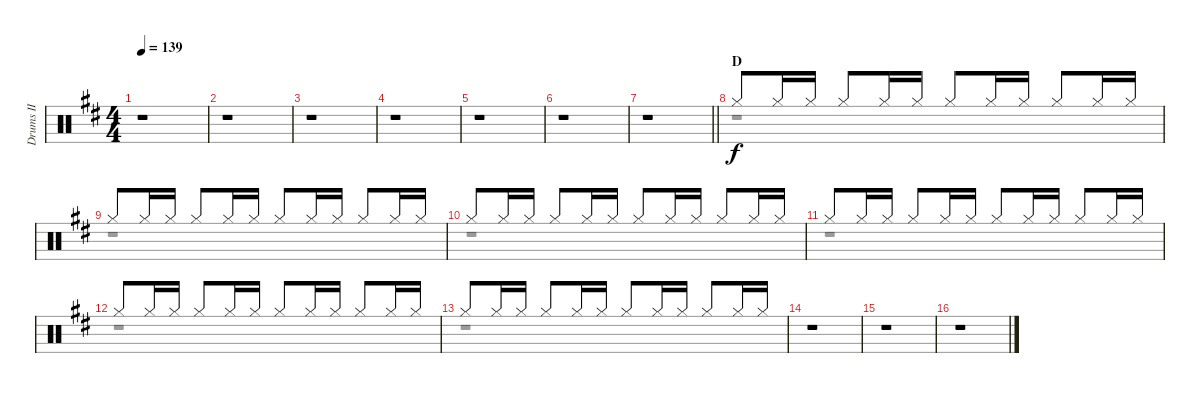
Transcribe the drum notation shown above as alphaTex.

\track ("Drums II" "Drums II") {instrument percussion}
\staff {score}
\articulation defaults
\voice
\ts (4 4)
\tempo 139
\clef neutral
\ks d
r.1{dy f} |
r.1 |
r.1 |
r.1 |
r.1 |
r.1 |
\barLineRight lightlight
r.1 |
\section ("" "D")
"Hi-Hat (closed)".8 "Hi-Hat (closed)".16 "Hi-Hat (closed)".16 "Hi-Hat (closed)".8 "Hi-Hat (closed)".16 "Hi-Hat (closed)".16 "Hi-Hat (closed)".8 "Hi-Hat (closed)".16 "Hi-Hat (closed)".16 "Hi-Hat (closed)".8 "Hi-Hat (closed)".16 "Hi-Hat (closed)".16 |
"Hi-Hat (closed)".8 "Hi-Hat (closed)".16 "Hi-Hat (closed)".16 "Hi-Hat (closed)".8 "Hi-Hat (closed)".16 "Hi-Hat (closed)".16 "Hi-Hat (closed)".8 "Hi-Hat (closed)".16 "Hi-Hat (closed)".16 "Hi-Hat (closed)".8 "Hi-Hat (closed)".16 "Hi-Hat (closed)".16 |
"Hi-Hat (closed)".8 "Hi-Hat (closed)".16 "Hi-Hat (closed)".16 "Hi-Hat (closed)".8 "Hi-Hat (closed)".16 "Hi-Hat (closed)".16 "Hi-Hat (closed)".8 "Hi-Hat (closed)".16 "Hi-Hat (closed)".16 "Hi-Hat (closed)".8 "Hi-Hat (closed)".16 "Hi-Hat (closed)".16 |
"Hi-Hat (closed)".8 "Hi-Hat (closed)".16 "Hi-Hat (closed)".16 "Hi-Hat (closed)".8 "Hi-Hat (closed)".16 "Hi-Hat (closed)".16 "Hi-Hat (closed)".8 "Hi-Hat (closed)".16 "Hi-Hat (closed)".16 "Hi-Hat (closed)".8 "Hi-Hat (closed)".16 "Hi-Hat (closed)".16 |
"Hi-Hat (closed)".8 "Hi-Hat (closed)".16 "Hi-Hat (closed)".16 "Hi-Hat (closed)".8 "Hi-Hat (closed)".16 "Hi-Hat (closed)".16 "Hi-Hat (closed)".8 "Hi-Hat (closed)".16 "Hi-Hat (closed)".16 "Hi-Hat (closed)".8 "Hi-Hat (closed)".16 "Hi-Hat (closed)".16 |
"Hi-Hat (closed)".8 "Hi-Hat (closed)".16 "Hi-Hat (closed)".16 "Hi-Hat (closed)".8 "Hi-Hat (closed)".16 "Hi-Hat (closed)".16 "Hi-Hat (closed)".8 "Hi-Hat (closed)".16 "Hi-Hat (closed)".16 "Hi-Hat (closed)".8 "Hi-Hat (closed)".16 "Hi-Hat (closed)".16 |
r.1 |
r.1 |
r.1
\voice
\clef neutral
\ottava regular
\simile none
\ks d
r.1{dy f} |
r.1 |
r.1 |
r.1 |
r.1 |
r.1 |
\barLineRight lightlight
r.1 |
r.1 |
r.1 |
r.1 |
r.1 |
r.1 |
r.1 |
r.1 |
r.1 |
r.1
